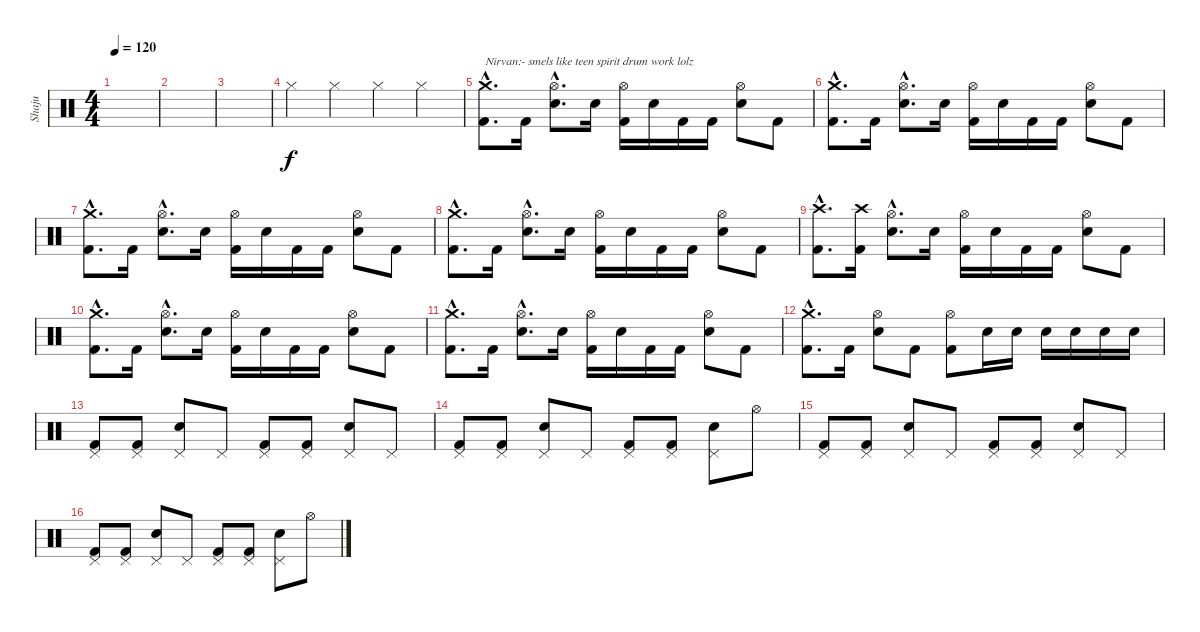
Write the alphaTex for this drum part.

\track ("Shaju" "Shaju") {instrument percussion}
\staff {score}
\articulation defaults
\ts (4 4)
\tempo 120
\clef neutral
\ks c
|
|
|
"Hi-Hat (closed)".4 "Hi-Hat (closed)".4 "Hi-Hat (closed)".4 "Hi-Hat (closed)".4 |
("Crash medium (hit)"{hac} "Kick (hit) 2"{hac}).8{d txt "Nirvan:- smels like teen spirit drum work lolz"} "Kick (hit) 2".16 ("Hi-Hat (open)"{hac} "Electric Snare (hit)"{hac}).8{d} "Electric Snare (hit)".16 ("Hi-Hat (open)" "Kick (hit) 2").16 "Electric Snare (hit)".16 "Kick (hit) 2".16 "Kick (hit) 2".16 ("Hi-Hat (open)" "Electric Snare (hit)").8 "Kick (hit) 2".8 |
("Crash medium (hit)"{hac} "Kick (hit) 2"{hac}).8{d} "Kick (hit) 2".16 ("Hi-Hat (open)"{hac} "Electric Snare (hit)"{hac}).8{d} "Electric Snare (hit)".16 ("Hi-Hat (open)" "Kick (hit) 2").16 "Electric Snare (hit)".16 "Kick (hit) 2".16 "Kick (hit) 2".16 ("Hi-Hat (open)" "Electric Snare (hit)").8 "Kick (hit) 2".8 |
("Crash medium (hit)"{hac} "Kick (hit) 2"{hac}).8{d} "Kick (hit) 2".16 ("Hi-Hat (open)"{hac} "Electric Snare (hit)"{hac}).8{d} "Electric Snare (hit)".16 ("Hi-Hat (open)" "Kick (hit) 2").16 "Electric Snare (hit)".16 "Kick (hit) 2".16 "Kick (hit) 2".16 ("Hi-Hat (open)" "Electric Snare (hit)").8 "Kick (hit) 2".8 |
("Crash medium (hit)"{hac} "Kick (hit) 2"{hac}).8{d} "Kick (hit) 2".16 ("Hi-Hat (open)"{hac} "Electric Snare (hit)"{hac}).8{d} "Electric Snare (hit)".16 ("Hi-Hat (open)" "Kick (hit) 2").16 "Electric Snare (hit)".16 "Kick (hit) 2".16 "Kick (hit) 2".16 ("Hi-Hat (open)" "Electric Snare (hit)").8 "Kick (hit) 2".8 |
("Crash high (hit)"{hac} "Kick (hit) 2"{hac}).8{d} ("Crash high (hit)" "Kick (hit) 2").16 ("Hi-Hat (open)"{hac} "Electric Snare (hit)"{hac}).8{d} "Electric Snare (hit)".16 ("Hi-Hat (open)" "Kick (hit) 2").16 "Electric Snare (hit)".16 "Kick (hit) 2".16 "Kick (hit) 2".16 ("Hi-Hat (open)" "Electric Snare (hit)").8 "Kick (hit) 2".8 |
("Crash medium (hit)"{hac} "Kick (hit) 2"{hac}).8{d} "Kick (hit) 2".16 ("Hi-Hat (open)"{hac} "Electric Snare (hit)"{hac}).8{d} "Electric Snare (hit)".16 ("Hi-Hat (open)" "Kick (hit) 2").16 "Electric Snare (hit)".16 "Kick (hit) 2".16 "Kick (hit) 2".16 ("Hi-Hat (open)" "Electric Snare (hit)").8 "Kick (hit) 2".8 |
("Crash medium (hit)"{hac} "Kick (hit) 2"{hac}).8{d} "Kick (hit) 2".16 ("Hi-Hat (open)"{hac} "Electric Snare (hit)"{hac}).8{d} "Electric Snare (hit)".16 ("Hi-Hat (open)" "Kick (hit) 2").16 "Electric Snare (hit)".16 "Kick (hit) 2".16 "Kick (hit) 2".16 ("Hi-Hat (open)" "Electric Snare (hit)").8 "Kick (hit) 2".8 |
("Crash medium (hit)"{hac} "Kick (hit) 2"{hac}).8{d} "Kick (hit) 2".16 ("Hi-Hat (open)" "Electric Snare (hit)").8 "Kick (hit) 2".8 ("Hi-Hat (open)" "Kick (hit) 2").8 "Electric Snare (hit)".16 "Electric Snare (hit)".16 "Electric Snare (hit)".16 "Electric Snare (hit)".16 "Electric Snare (hit)".16 "Electric Snare (hit)".16 |
("Pedal Hi-Hat (hit)" "Kick (hit) 2").8 ("Pedal Hi-Hat (hit)" "Kick (hit) 2").8 ("Pedal Hi-Hat (hit)" "Electric Snare (hit)").8 "Pedal Hi-Hat (hit)".8 ("Pedal Hi-Hat (hit)" "Kick (hit) 2").8 ("Pedal Hi-Hat (hit)" "Kick (hit) 2").8 ("Pedal Hi-Hat (hit)" "Electric Snare (hit)").8 "Pedal Hi-Hat (hit)".8 |
("Pedal Hi-Hat (hit)" "Kick (hit) 2").8 ("Pedal Hi-Hat (hit)" "Kick (hit) 2").8 ("Pedal Hi-Hat (hit)" "Electric Snare (hit)").8 "Pedal Hi-Hat (hit)".8 ("Pedal Hi-Hat (hit)" "Kick (hit) 2").8 ("Pedal Hi-Hat (hit)" "Kick (hit) 2").8 ("Pedal Hi-Hat (hit)" "Electric Snare (hit)").8 "Hi-Hat (open)".8 |
("Pedal Hi-Hat (hit)" "Kick (hit) 2").8 ("Pedal Hi-Hat (hit)" "Kick (hit) 2").8 ("Pedal Hi-Hat (hit)" "Electric Snare (hit)").8 "Pedal Hi-Hat (hit)".8 ("Pedal Hi-Hat (hit)" "Kick (hit) 2").8 ("Pedal Hi-Hat (hit)" "Kick (hit) 2").8 ("Pedal Hi-Hat (hit)" "Electric Snare (hit)").8 "Pedal Hi-Hat (hit)".8 |
("Pedal Hi-Hat (hit)" "Kick (hit) 2").8 ("Pedal Hi-Hat (hit)" "Kick (hit) 2").8 ("Pedal Hi-Hat (hit)" "Electric Snare (hit)").8 "Pedal Hi-Hat (hit)".8 ("Pedal Hi-Hat (hit)" "Kick (hit) 2").8 ("Pedal Hi-Hat (hit)" "Kick (hit) 2").8 ("Pedal Hi-Hat (hit)" "Electric Snare (hit)").8 "Hi-Hat (open)".8
